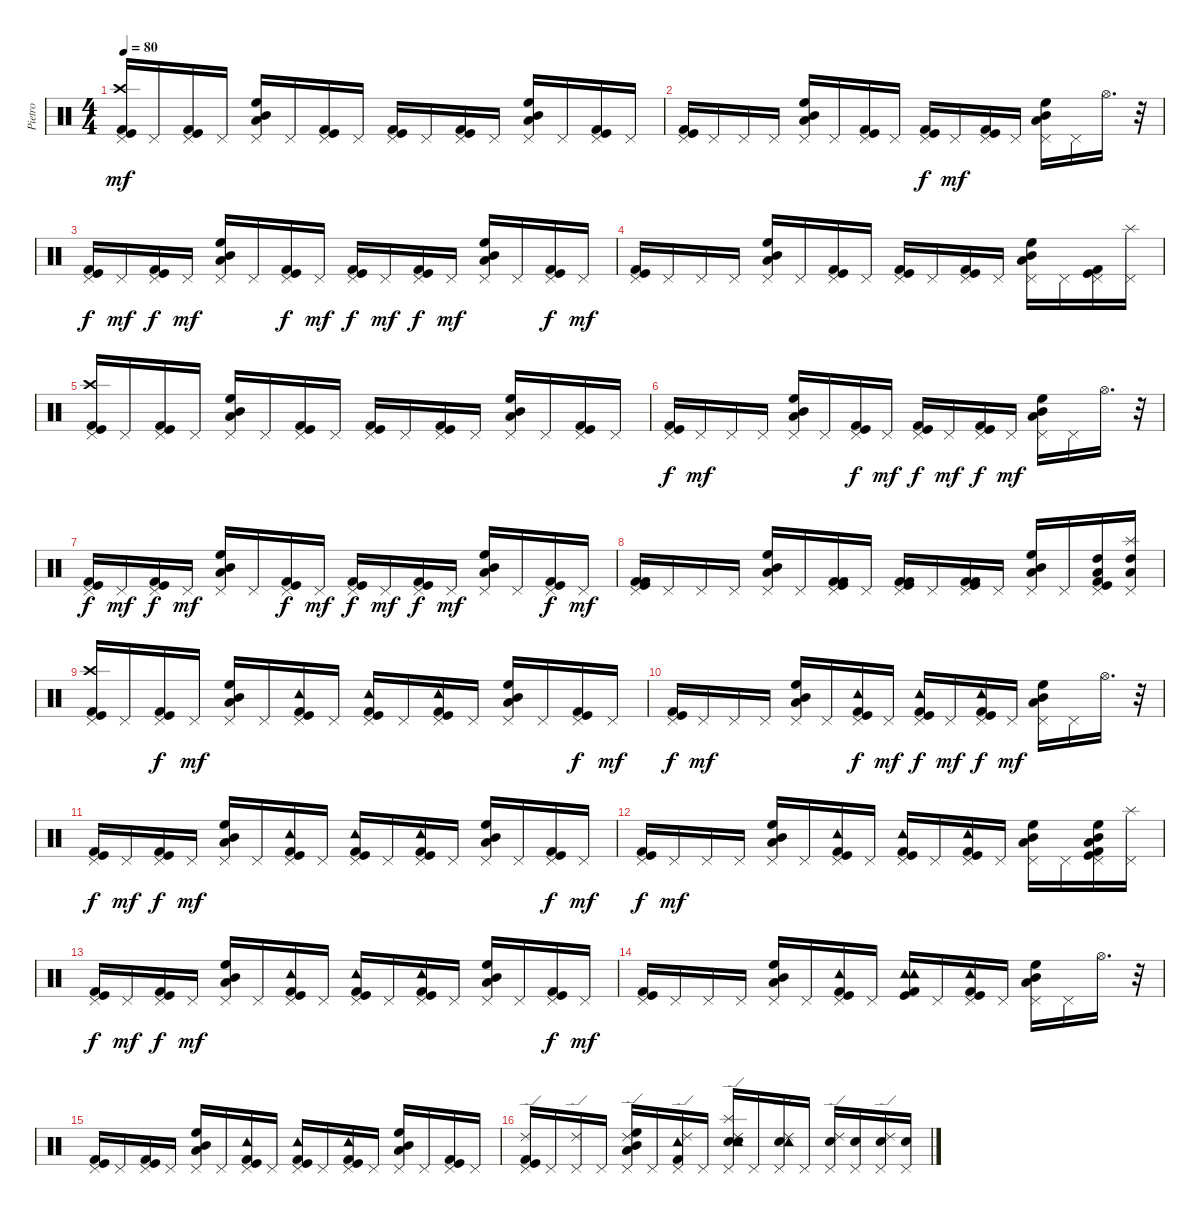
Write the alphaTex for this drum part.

\track ("Pietro" "Pietro") {instrument percussion}
\staff {score}
\articulation defaults
\ts (4 4)
\tempo 80
\clef neutral
\ks c
("Pedal Hi-Hat (hit)" "Crash high (hit)" "Kick (hit)" "Kick (hit) 2").16{dy mf} "Pedal Hi-Hat (hit)".16 ("Pedal Hi-Hat (hit)" "Kick (hit)" "Kick (hit) 2").16 "Pedal Hi-Hat (hit)".16 ("Pedal Hi-Hat (hit)" "High Floor Tom (hit)" "Mid Tom (hit)" "Low Tom (hit)").16 "Pedal Hi-Hat (hit)".16 ("Pedal Hi-Hat (hit)" "Kick (hit)" "Kick (hit) 2").16 "Pedal Hi-Hat (hit)".16 ("Pedal Hi-Hat (hit)" "Kick (hit)" "Kick (hit) 2").16 "Pedal Hi-Hat (hit)".16 ("Pedal Hi-Hat (hit)" "Kick (hit)" "Kick (hit) 2").16 "Pedal Hi-Hat (hit)".16 ("Pedal Hi-Hat (hit)" "High Floor Tom (hit)" "Mid Tom (hit)" "Low Tom (hit)").16 "Pedal Hi-Hat (hit)".16 ("Pedal Hi-Hat (hit)" "Kick (hit)" "Kick (hit) 2").16 "Pedal Hi-Hat (hit)".16 |
("Pedal Hi-Hat (hit)" "Kick (hit)" "Kick (hit) 2").16 "Pedal Hi-Hat (hit)".16 "Pedal Hi-Hat (hit)".16 "Pedal Hi-Hat (hit)".16 ("Pedal Hi-Hat (hit)" "High Floor Tom (hit)" "Mid Tom (hit)" "Low Tom (hit)").16 "Pedal Hi-Hat (hit)".16 ("Pedal Hi-Hat (hit)" "Kick (hit)" "Kick (hit) 2").16 "Pedal Hi-Hat (hit)".16 ("Pedal Hi-Hat (hit)" "Kick (hit)" "Kick (hit) 2").16{dy f} "Pedal Hi-Hat (hit)".16{dy mf} ("Pedal Hi-Hat (hit)" "Kick (hit)" "Kick (hit) 2").16 "Pedal Hi-Hat (hit)".16 ("Pedal Hi-Hat (hit)" "High Floor Tom (hit)" "Mid Tom (hit)" "Low Tom (hit)").16 "Pedal Hi-Hat (hit)".16 "Hi-Hat (open)".16{d} r.32 |
("Pedal Hi-Hat (hit)" "Kick (hit)" "Kick (hit) 2").16{dy f} "Pedal Hi-Hat (hit)".16{dy mf} ("Pedal Hi-Hat (hit)" "Kick (hit)" "Kick (hit) 2").16{dy f} "Pedal Hi-Hat (hit)".16{dy mf} ("Pedal Hi-Hat (hit)" "High Floor Tom (hit)" "Mid Tom (hit)" "Low Tom (hit)").16 "Pedal Hi-Hat (hit)".16 ("Pedal Hi-Hat (hit)" "Kick (hit)" "Kick (hit) 2").16{dy f} "Pedal Hi-Hat (hit)".16{dy mf} ("Pedal Hi-Hat (hit)" "Kick (hit)" "Kick (hit) 2").16{dy f} "Pedal Hi-Hat (hit)".16{dy mf} ("Pedal Hi-Hat (hit)" "Kick (hit)" "Kick (hit) 2").16{dy f} "Pedal Hi-Hat (hit)".16{dy mf} ("Pedal Hi-Hat (hit)" "High Floor Tom (hit)" "Mid Tom (hit)" "Low Tom (hit)").16 "Pedal Hi-Hat (hit)".16 ("Pedal Hi-Hat (hit)" "Kick (hit)" "Kick (hit) 2").16{dy f} "Pedal Hi-Hat (hit)".16{dy mf} |
("Pedal Hi-Hat (hit)" "Kick (hit)" "Kick (hit) 2").16 "Pedal Hi-Hat (hit)".16 "Pedal Hi-Hat (hit)".16 "Pedal Hi-Hat (hit)".16 ("Pedal Hi-Hat (hit)" "High Floor Tom (hit)" "Mid Tom (hit)" "Low Tom (hit)").16 "Pedal Hi-Hat (hit)".16 ("Pedal Hi-Hat (hit)" "Kick (hit)" "Kick (hit) 2").16 "Pedal Hi-Hat (hit)".16 ("Pedal Hi-Hat (hit)" "Kick (hit)" "Kick (hit) 2").16 "Pedal Hi-Hat (hit)".16 ("Pedal Hi-Hat (hit)" "Kick (hit)" "Kick (hit) 2").16 "Pedal Hi-Hat (hit)".16 ("Pedal Hi-Hat (hit)" "High Floor Tom (hit)" "Mid Tom (hit)" "Low Tom (hit)").16 "Pedal Hi-Hat (hit)".16 ("Pedal Hi-Hat (hit)" "Kick (hit)" "Kick (hit) 2").16 ("Pedal Hi-Hat (hit)" "Splash (hit)").16 |
("Pedal Hi-Hat (hit)" "Crash high (hit)" "Kick (hit)" "Kick (hit) 2").16 "Pedal Hi-Hat (hit)".16 ("Pedal Hi-Hat (hit)" "Kick (hit)" "Kick (hit) 2").16 "Pedal Hi-Hat (hit)".16 ("Pedal Hi-Hat (hit)" "High Floor Tom (hit)" "Mid Tom (hit)" "Low Tom (hit)").16 "Pedal Hi-Hat (hit)".16 ("Pedal Hi-Hat (hit)" "Kick (hit)" "Kick (hit) 2").16 "Pedal Hi-Hat (hit)".16 ("Pedal Hi-Hat (hit)" "Kick (hit)" "Kick (hit) 2").16 "Pedal Hi-Hat (hit)".16 ("Pedal Hi-Hat (hit)" "Kick (hit)" "Kick (hit) 2").16 "Pedal Hi-Hat (hit)".16 ("Pedal Hi-Hat (hit)" "High Floor Tom (hit)" "Mid Tom (hit)" "Low Tom (hit)").16 "Pedal Hi-Hat (hit)".16 ("Pedal Hi-Hat (hit)" "Kick (hit)" "Kick (hit) 2").16 "Pedal Hi-Hat (hit)".16 |
("Pedal Hi-Hat (hit)" "Kick (hit)" "Kick (hit) 2").16{dy f} "Pedal Hi-Hat (hit)".16{dy mf} "Pedal Hi-Hat (hit)".16 "Pedal Hi-Hat (hit)".16 ("Low Tom (hit)" "High Floor Tom (hit)" "Mid Tom (hit)" "Pedal Hi-Hat (hit)").16 "Pedal Hi-Hat (hit)".16 ("Pedal Hi-Hat (hit)" "Kick (hit)" "Kick (hit) 2").16{dy f} "Pedal Hi-Hat (hit)".16{dy mf} ("Pedal Hi-Hat (hit)" "Kick (hit)" "Kick (hit) 2").16{dy f} "Pedal Hi-Hat (hit)".16{dy mf} ("Pedal Hi-Hat (hit)" "Kick (hit)" "Kick (hit) 2").16{dy f} "Pedal Hi-Hat (hit)".16{dy mf} ("Pedal Hi-Hat (hit)" "High Floor Tom (hit)" "Mid Tom (hit)" "Low Tom (hit)").16 "Pedal Hi-Hat (hit)".16 "Hi-Hat (open)".16{d} r.32 |
("Pedal Hi-Hat (hit)" "Kick (hit)" "Kick (hit) 2").16{dy f} "Pedal Hi-Hat (hit)".16{dy mf} ("Pedal Hi-Hat (hit)" "Kick (hit)" "Kick (hit) 2").16{dy f} "Pedal Hi-Hat (hit)".16{dy mf} ("Pedal Hi-Hat (hit)" "High Floor Tom (hit)" "Mid Tom (hit)" "Low Tom (hit)").16 "Pedal Hi-Hat (hit)".16 ("Pedal Hi-Hat (hit)" "Kick (hit)" "Kick (hit) 2").16{dy f} "Pedal Hi-Hat (hit)".16{dy mf} ("Pedal Hi-Hat (hit)" "Kick (hit)" "Kick (hit) 2").16{dy f} "Pedal Hi-Hat (hit)".16{dy mf} ("Pedal Hi-Hat (hit)" "Kick (hit)" "Kick (hit) 2").16{dy f} "Pedal Hi-Hat (hit)".16{dy mf} ("Pedal Hi-Hat (hit)" "High Floor Tom (hit)" "Mid Tom (hit)" "Low Tom (hit)").16 "Pedal Hi-Hat (hit)".16 ("Pedal Hi-Hat (hit)" "Kick (hit)" "Kick (hit) 2").16{dy f} "Pedal Hi-Hat (hit)".16{dy mf} |
("Kick (hit) 2" "Kick (hit)" "Pedal Hi-Hat (hit)" "Kick (hit) 2").16 "Pedal Hi-Hat (hit)".16 "Pedal Hi-Hat (hit)".16 "Pedal Hi-Hat (hit)".16 ("Low Tom (hit)" "Mid Tom (hit)" "High Floor Tom (hit)" "Pedal Hi-Hat (hit)").16 "Pedal Hi-Hat (hit)".16 ("Kick (hit) 2" "Kick (hit)" "Pedal Hi-Hat (hit)" "Kick (hit) 2").16 "Pedal Hi-Hat (hit)".16 ("Kick (hit) 2" "Kick (hit)" "Pedal Hi-Hat (hit)" "Kick (hit) 2").16 "Pedal Hi-Hat (hit)".16 ("Kick (hit) 2" "Kick (hit)" "Pedal Hi-Hat (hit)" "Kick (hit) 2").16 "Pedal Hi-Hat (hit)".16 ("Low Tom (hit)" "High Floor Tom (hit)" "Mid Tom (hit)" "Pedal Hi-Hat (hit)").16 "Pedal Hi-Hat (hit)".16 ("High Tom (hit)" "Low Tom (hit)" "Kick (hit)" "Kick (hit) 2" "Pedal Hi-Hat (hit)").16 ("Low Tom (hit)" "High Tom (hit)" "Splash (hit)" "Pedal Hi-Hat (hit)").16 |
("Pedal Hi-Hat (hit)" "Crash high (hit)" "Kick (hit)" "Kick (hit) 2").16 "Pedal Hi-Hat (hit)".16 ("Pedal Hi-Hat (hit)" "Kick (hit)" "Kick (hit) 2").16{dy f} "Pedal Hi-Hat (hit)".16{dy mf} ("Pedal Hi-Hat (hit)" "High Floor Tom (hit)" "Mid Tom (hit)" "Low Tom (hit)").16 "Pedal Hi-Hat (hit)".16 ("Pedal Hi-Hat (hit)" "Tambourine (hit)" "Kick (hit)" "Kick (hit) 2").16 "Pedal Hi-Hat (hit)".16 ("Pedal Hi-Hat (hit)" "Tambourine (hit)" "Kick (hit)" "Kick (hit) 2").16 "Pedal Hi-Hat (hit)".16 ("Pedal Hi-Hat (hit)" "Tambourine (hit)" "Kick (hit)" "Kick (hit) 2").16 "Pedal Hi-Hat (hit)".16 ("Pedal Hi-Hat (hit)" "High Floor Tom (hit)" "Mid Tom (hit)" "Low Tom (hit)").16 "Pedal Hi-Hat (hit)".16 ("Pedal Hi-Hat (hit)" "Kick (hit)" "Kick (hit) 2").16{dy f} "Pedal Hi-Hat (hit)".16{dy mf} |
("Pedal Hi-Hat (hit)" "Kick (hit)" "Kick (hit) 2").16{dy f} "Pedal Hi-Hat (hit)".16{dy mf} "Pedal Hi-Hat (hit)".16 "Pedal Hi-Hat (hit)".16 ("Pedal Hi-Hat (hit)" "High Floor Tom (hit)" "Mid Tom (hit)" "Low Tom (hit)").16 "Pedal Hi-Hat (hit)".16 ("Pedal Hi-Hat (hit)" "Tambourine (hit)" "Kick (hit)" "Kick (hit) 2").16{dy f} "Pedal Hi-Hat (hit)".16{dy mf} ("Pedal Hi-Hat (hit)" "Tambourine (hit)" "Kick (hit)" "Kick (hit) 2").16{dy f} "Pedal Hi-Hat (hit)".16{dy mf} ("Pedal Hi-Hat (hit)" "Tambourine (hit)" "Kick (hit)" "Kick (hit) 2").16{dy f} "Pedal Hi-Hat (hit)".16{dy mf} ("Pedal Hi-Hat (hit)" "High Floor Tom (hit)" "Mid Tom (hit)" "Low Tom (hit)").16 "Pedal Hi-Hat (hit)".16 "Hi-Hat (open)".16{d} r.32 |
("Pedal Hi-Hat (hit)" "Kick (hit)" "Kick (hit) 2").16{dy f} "Pedal Hi-Hat (hit)".16{dy mf} ("Pedal Hi-Hat (hit)" "Kick (hit)" "Kick (hit) 2").16{dy f} "Pedal Hi-Hat (hit)".16{dy mf} ("Pedal Hi-Hat (hit)" "High Floor Tom (hit)" "Mid Tom (hit)" "Low Tom (hit)").16 "Pedal Hi-Hat (hit)".16 ("Pedal Hi-Hat (hit)" "Tambourine (hit)" "Kick (hit)" "Kick (hit) 2").16 "Pedal Hi-Hat (hit)".16 ("Pedal Hi-Hat (hit)" "Tambourine (hit)" "Kick (hit)" "Kick (hit) 2").16 "Pedal Hi-Hat (hit)".16 ("Pedal Hi-Hat (hit)" "Tambourine (hit)" "Kick (hit)" "Kick (hit) 2").16 "Pedal Hi-Hat (hit)".16 ("Pedal Hi-Hat (hit)" "High Floor Tom (hit)" "Mid Tom (hit)" "Low Tom (hit)").16 "Pedal Hi-Hat (hit)".16 ("Pedal Hi-Hat (hit)" "Kick (hit)" "Kick (hit) 2").16{dy f} "Pedal Hi-Hat (hit)".16{dy mf} |
("Pedal Hi-Hat (hit)" "Kick (hit)" "Kick (hit) 2").16{dy f} "Pedal Hi-Hat (hit)".16{dy mf} "Pedal Hi-Hat (hit)".16 "Pedal Hi-Hat (hit)".16 ("Pedal Hi-Hat (hit)" "High Floor Tom (hit)" "Mid Tom (hit)" "Low Tom (hit)").16 "Pedal Hi-Hat (hit)".16 ("Pedal Hi-Hat (hit)" "Tambourine (hit)" "Kick (hit)" "Kick (hit) 2").16 "Pedal Hi-Hat (hit)".16 ("Pedal Hi-Hat (hit)" "Tambourine (hit)" "Kick (hit)" "Kick (hit) 2").16 "Pedal Hi-Hat (hit)".16 ("Pedal Hi-Hat (hit)" "Tambourine (hit)" "Kick (hit)" "Kick (hit) 2").16 "Pedal Hi-Hat (hit)".16 ("Pedal Hi-Hat (hit)" "High Floor Tom (hit)" "Mid Tom (hit)" "Low Tom (hit)").16 "Pedal Hi-Hat (hit)".16 ("Pedal Hi-Hat (hit)" "High Floor Tom (hit)" "Mid Tom (hit)" "Low Tom (hit)" "Kick (hit)" "Kick (hit) 2").16 ("Pedal Hi-Hat (hit)" "Splash (hit)").16 |
("Pedal Hi-Hat (hit)" "Kick (hit)" "Kick (hit) 2").16{dy f} "Pedal Hi-Hat (hit)".16{dy mf} ("Pedal Hi-Hat (hit)" "Kick (hit)" "Kick (hit) 2").16{dy f} "Pedal Hi-Hat (hit)".16{dy mf} ("Pedal Hi-Hat (hit)" "High Floor Tom (hit)" "Mid Tom (hit)" "Low Tom (hit)").16 "Pedal Hi-Hat (hit)".16 ("Pedal Hi-Hat (hit)" "Tambourine (hit)" "Kick (hit)" "Kick (hit) 2").16 "Pedal Hi-Hat (hit)".16 ("Pedal Hi-Hat (hit)" "Tambourine (hit)" "Kick (hit)" "Kick (hit) 2").16 "Pedal Hi-Hat (hit)".16 ("Pedal Hi-Hat (hit)" "Tambourine (hit)" "Kick (hit)" "Kick (hit) 2").16 "Pedal Hi-Hat (hit)".16 ("Pedal Hi-Hat (hit)" "High Floor Tom (hit)" "Mid Tom (hit)" "Low Tom (hit)").16 "Pedal Hi-Hat (hit)".16 ("Pedal Hi-Hat (hit)" "Kick (hit)" "Kick (hit) 2").16{dy f} "Pedal Hi-Hat (hit)".16{dy mf} |
("Pedal Hi-Hat (hit)" "Kick (hit)" "Kick (hit) 2").16 "Pedal Hi-Hat (hit)".16 "Pedal Hi-Hat (hit)".16 "Pedal Hi-Hat (hit)".16 ("Pedal Hi-Hat (hit)" "High Floor Tom (hit)" "Mid Tom (hit)" "Low Tom (hit)").16 "Pedal Hi-Hat (hit)".16 ("Pedal Hi-Hat (hit)" "Tambourine (hit)" "Kick (hit)" "Kick (hit) 2").16 "Pedal Hi-Hat (hit)".16 ("Tambourine (hit)" "Tambourine (hit)" "Kick (hit)" "Kick (hit) 2").16 "Pedal Hi-Hat (hit)".16 ("Pedal Hi-Hat (hit)" "Tambourine (hit)" "Kick (hit)" "Kick (hit) 2").16 "Pedal Hi-Hat (hit)".16 ("Pedal Hi-Hat (hit)" "High Floor Tom (hit)" "Mid Tom (hit)" "Low Tom (hit)").16 "Pedal Hi-Hat (hit)".16 "Hi-Hat (open)".16{d} r.32 |
("Pedal Hi-Hat (hit)" "Kick (hit)" "Kick (hit) 2").16 "Pedal Hi-Hat (hit)".16 ("Pedal Hi-Hat (hit)" "Kick (hit)" "Kick (hit) 2").16 "Pedal Hi-Hat (hit)".16 ("Pedal Hi-Hat (hit)" "High Floor Tom (hit)" "Mid Tom (hit)" "Low Tom (hit)").16 "Pedal Hi-Hat (hit)".16 ("Pedal Hi-Hat (hit)" "Tambourine (hit)" "Kick (hit)" "Kick (hit) 2").16 "Pedal Hi-Hat (hit)".16 ("Pedal Hi-Hat (hit)" "Tambourine (hit)" "Kick (hit)" "Kick (hit) 2").16 "Pedal Hi-Hat (hit)".16 ("Pedal Hi-Hat (hit)" "Tambourine (hit)" "Kick (hit)" "Kick (hit) 2").16 "Pedal Hi-Hat (hit)".16 ("Pedal Hi-Hat (hit)" "High Floor Tom (hit)" "Mid Tom (hit)" "Low Tom (hit)").16 "Pedal Hi-Hat (hit)".16 ("Pedal Hi-Hat (hit)" "Kick (hit)" "Kick (hit) 2").16 "Pedal Hi-Hat (hit)".16 |
("Pedal Hi-Hat (hit)" "Ride (edge) 2" "Kick (hit)" "Kick (hit) 2").16 "Pedal Hi-Hat (hit)".16 ("Pedal Hi-Hat (hit)" "Ride (edge) 2").16 "Pedal Hi-Hat (hit)".16 ("Pedal Hi-Hat (hit)" "Ride (edge) 2" "High Floor Tom (hit)" "Mid Tom (hit)" "Low Tom (hit)").16 "Pedal Hi-Hat (hit)".16 ("Pedal Hi-Hat (hit)" "Ride (edge) 2" "Tambourine (hit)" "Kick (hit) 2").16 "Pedal Hi-Hat (hit)".16 ("Pedal Hi-Hat (hit)" "Ride (edge) 2" "Snare (hit) 2" "Tambourine (hit)" "Splash (hit)" "Electric Snare (hit)").16 "Pedal Hi-Hat (hit)".16 ("Pedal Hi-Hat (hit)" "Ride (edge) 2" "Snare (hit) 2" "Tambourine (hit)").16 "Pedal Hi-Hat (hit)".16 ("Pedal Hi-Hat (hit)" "Ride (edge) 2" "Snare (hit) 2").16 ("Pedal Hi-Hat (hit)" "Snare (hit) 2").16 ("Pedal Hi-Hat (hit)" "Ride (edge) 2" "Snare (hit) 2").16 ("Pedal Hi-Hat (hit)" "Snare (hit) 2").16
